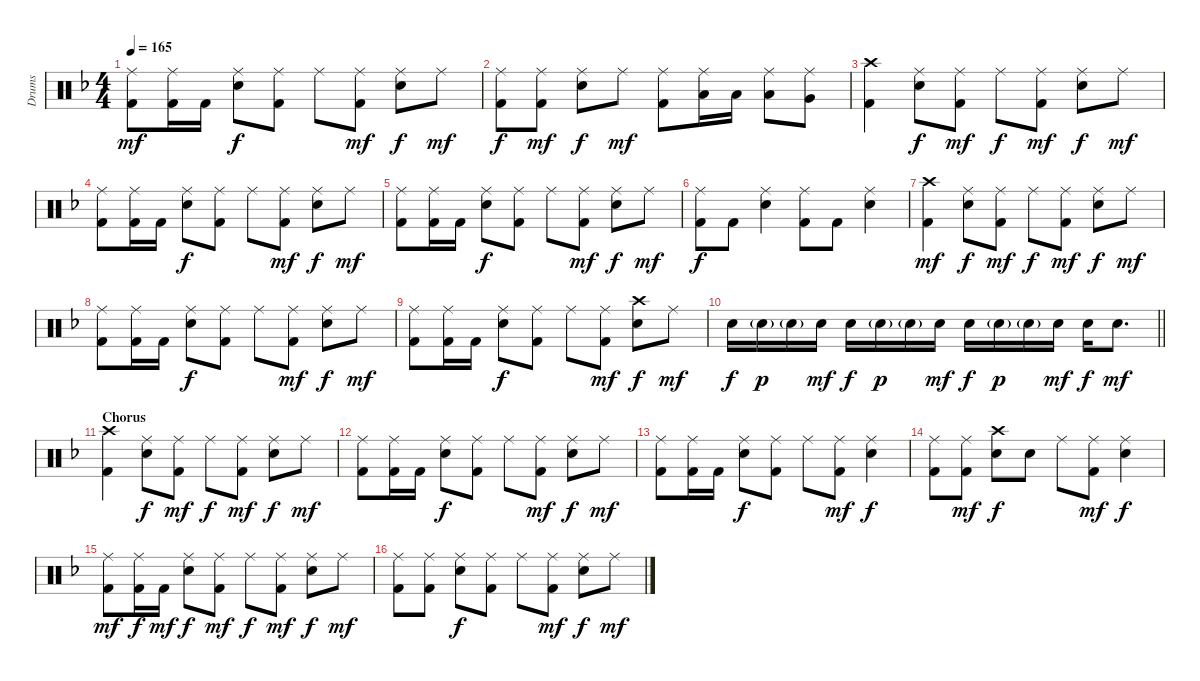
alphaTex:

\track ("Drums" "Drums") {instrument percussion}
\staff {score}
\articulation defaults
\ts (4 4)
\tempo 165
\clef neutral
\ks f
("Ride (middle)" "Kick (hit) 2").8{dy mf} ("Ride (middle)" "Kick (hit) 2").16 "Kick (hit) 2".16 ("Ride (middle)" "Electric Snare (hit)").8{dy f} ("Ride (middle)" "Kick (hit) 2").8 "Ride (middle)".8 ("Ride (middle)" "Kick (hit) 2").8{dy mf} ("Ride (middle)" "Electric Snare (hit)").8{dy f} "Ride (middle)".8{dy mf} |
("Ride (middle)" "Kick (hit) 2").8{dy f} ("Ride (middle)" "Kick (hit) 2").8{dy mf} ("Ride (middle)" "Electric Snare (hit)").8{dy f} "Ride (middle)".8{dy mf} ("Ride (middle)" "Kick (hit) 2").8 ("Ride (middle)" "Low Tom (hit)").16 "Low Tom (hit)".16 ("Ride (middle)" "Low Tom (hit)").8 ("Ride (middle)" "Very Low Tom (hit)").8 |
("Crash high (hit)" "Kick (hit) 2").4 ("Ride (middle)" "Electric Snare (hit)").8{dy f} ("Ride (middle)" "Kick (hit) 2").8{dy mf} "Ride (middle)".8{dy f} ("Ride (middle)" "Kick (hit) 2").8{dy mf} ("Ride (middle)" "Electric Snare (hit)").8{dy f} "Ride (middle)".8{dy mf} |
("Ride (middle)" "Kick (hit) 2").8 ("Ride (middle)" "Kick (hit) 2").16 "Kick (hit) 2".16 ("Ride (middle)" "Electric Snare (hit)").8{dy f} ("Ride (middle)" "Kick (hit) 2").8 "Ride (middle)".8 ("Ride (middle)" "Kick (hit) 2").8{dy mf} ("Ride (middle)" "Electric Snare (hit)").8{dy f} "Ride (middle)".8{dy mf} |
("Ride (middle)" "Kick (hit) 2").8 ("Ride (middle)" "Kick (hit) 2").16 "Kick (hit) 2".16 ("Ride (middle)" "Electric Snare (hit)").8{dy f} ("Ride (middle)" "Kick (hit) 2").8 "Ride (middle)".8 ("Ride (middle)" "Kick (hit) 2").8{dy mf} ("Ride (middle)" "Electric Snare (hit)").8{dy f} "Ride (middle)".8{dy mf} |
("Ride (middle)" "Kick (hit) 2").8{dy f} "Kick (hit) 2".8 ("Ride (middle)" "Electric Snare (hit)").4 ("Ride (middle)" "Kick (hit) 2").8 "Kick (hit) 2".8 ("Ride (middle)" "Electric Snare (hit)").4 |
("Crash high (hit)" "Kick (hit) 2").4{dy mf} ("Ride (middle)" "Electric Snare (hit)").8{dy f} ("Ride (middle)" "Kick (hit) 2").8{dy mf} "Ride (middle)".8{dy f} ("Ride (middle)" "Kick (hit) 2").8{dy mf} ("Ride (middle)" "Electric Snare (hit)").8{dy f} "Ride (middle)".8{dy mf} |
("Ride (middle)" "Kick (hit) 2").8 ("Ride (middle)" "Kick (hit) 2").16 "Kick (hit) 2".16 ("Ride (middle)" "Electric Snare (hit)").8{dy f} ("Ride (middle)" "Kick (hit) 2").8 "Ride (middle)".8 ("Ride (middle)" "Kick (hit) 2").8{dy mf} ("Ride (middle)" "Electric Snare (hit)").8{dy f} "Ride (middle)".8{dy mf} |
("Ride (middle)" "Kick (hit) 2").8 ("Ride (middle)" "Kick (hit) 2").16 "Kick (hit) 2".16 ("Ride (middle)" "Electric Snare (hit)").8{dy f} ("Ride (middle)" "Kick (hit) 2").8 "Ride (middle)".8 ("Ride (middle)" "Kick (hit) 2").8{dy mf} ("Crash high (hit)" "Electric Snare (hit)").8{dy f} "Ride (middle)".8{dy mf} |
\barLineRight lightlight "Electric Snare (hit)".16{dy f} "Electric Snare (hit)"{g}.16{dy p} "Electric Snare (hit)"{g}.16 "Electric Snare (hit)".16{dy mf} "Electric Snare (hit)".16{dy f} "Electric Snare (hit)"{g}.16{dy p} "Electric Snare (hit)"{g}.16 "Electric Snare (hit)".16{dy mf} "Electric Snare (hit)".16{dy f} "Electric Snare (hit)"{g}.16{dy p} "Electric Snare (hit)"{g}.16 "Electric Snare (hit)".16{dy mf} "Electric Snare (hit)".16{dy f} "Electric Snare (hit)".8{d dy mf}
|
\section ("" "Chorus")
("Crash high (hit)" "Kick (hit) 2").4 ("Ride (middle)" "Electric Snare (hit)").8{dy f} ("Ride (middle)" "Kick (hit) 2").8{dy mf} "Ride (middle)".8{dy f} ("Ride (middle)" "Kick (hit) 2").8{dy mf} ("Ride (middle)" "Electric Snare (hit)").8{dy f} "Ride (middle)".8{dy mf} |
("Ride (middle)" "Kick (hit) 2").8 ("Ride (middle)" "Kick (hit) 2").16 "Kick (hit) 2".16 ("Ride (middle)" "Electric Snare (hit)").8{dy f} ("Ride (middle)" "Kick (hit) 2").8 "Ride (middle)".8 ("Ride (middle)" "Kick (hit) 2").8{dy mf} ("Ride (middle)" "Electric Snare (hit)").8{dy f} "Ride (middle)".8{dy mf} |
("Ride (middle)" "Kick (hit) 2").8 ("Ride (middle)" "Kick (hit) 2").16 "Kick (hit) 2".16 ("Ride (middle)" "Electric Snare (hit)").8{dy f} ("Ride (middle)" "Kick (hit) 2").8 "Ride (middle)".8 ("Ride (middle)" "Kick (hit) 2").8{dy mf} ("Ride (middle)" "Electric Snare (hit)").4{dy f} |
("Ride (middle)" "Kick (hit) 2").8 ("Ride (middle)" "Kick (hit) 2").8{dy mf} ("Crash high (hit)" "Electric Snare (hit)").8{dy f} "Electric Snare (hit)".8 "Ride (middle)".8 ("Ride (middle)" "Kick (hit) 2").8{dy mf} ("Ride (middle)" "Electric Snare (hit)").4{dy f} |
("Ride (middle)" "Kick (hit) 2").8{dy mf} ("Ride (middle)" "Kick (hit) 2").16{dy f} "Kick (hit) 2".16{dy mf} ("Ride (middle)" "Electric Snare (hit)").8{dy f} ("Ride (middle)" "Kick (hit) 2").8{dy mf} "Ride (middle)".8{dy f} ("Ride (middle)" "Kick (hit) 2").8{dy mf} ("Ride (middle)" "Electric Snare (hit)").8{dy f} "Ride (middle)".8{dy mf} |
("Ride (middle)" "Kick (hit) 2").8 ("Ride (middle)" "Kick (hit) 2").8 ("Ride (middle)" "Electric Snare (hit)").8{dy f} ("Ride (middle)" "Kick (hit) 2").8 "Ride (middle)".8 ("Ride (middle)" "Kick (hit) 2").8{dy mf} ("Ride (middle)" "Electric Snare (hit)").8{dy f} "Ride (middle)".8{dy mf}
